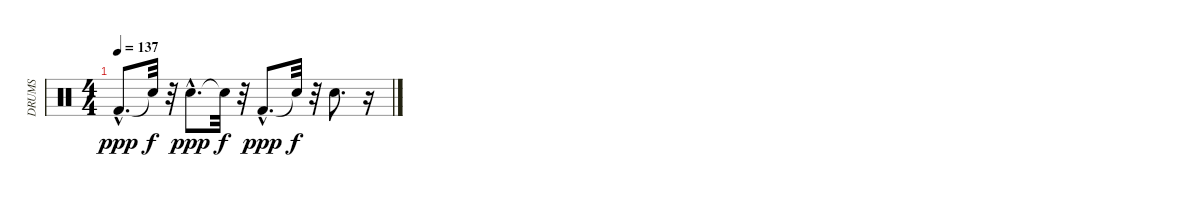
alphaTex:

\track ("DRUMS" "DRUMS") {instrument percussion}
\staff {score}
\articulation defaults
\ts (4 4)
\tempo 137
\clef neutral
\ks c "Kick (hit) 2"{hac}.8{d dy ppp} "Snare (hit)"{t}.32{dy f}
r.32 "Snare (hit) 2"{hac}.8{d dy ppp} "Snare (hit)"{t}.32{dy f} r.32 "Kick (hit) 2"{hac}.8{d dy ppp} "Snare (hit)"{t}.32{dy f} r.32 "Snare (hit) 2".8{d} r.16
